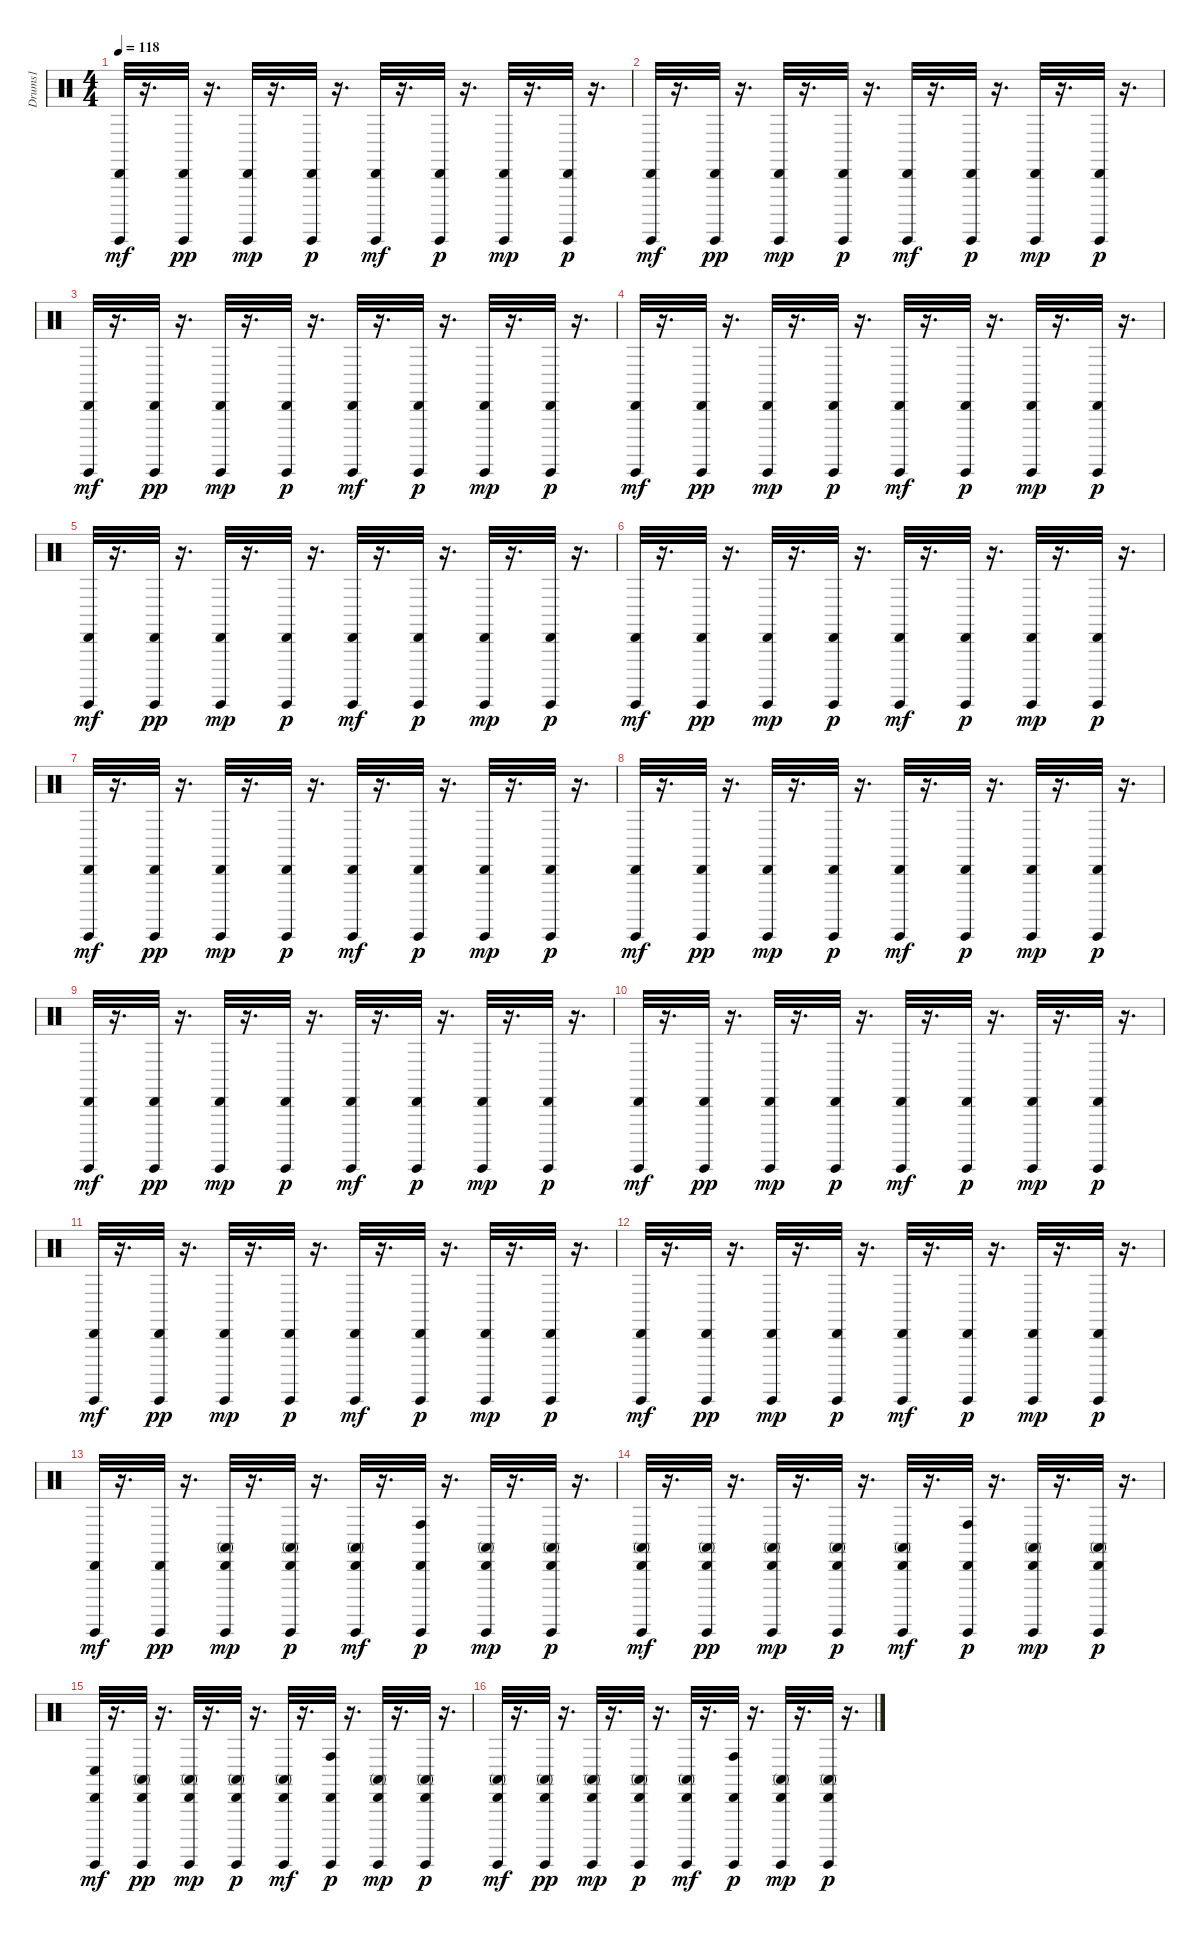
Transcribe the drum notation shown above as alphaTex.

\track ("Drums1" "Drums1") {instrument percussion}
\staff {score}
\articulation defaults
\ts (4 4)
\tempo 118
\clef neutral
\ks c
("Guiro (hit)" "Cabasa (hit)").32{dy mf} r.16{d} ("Guiro (hit)" "Cabasa (hit)").32{dy pp} r.16{d} ("Guiro (hit)" "Cabasa (hit)").32{dy mp} r.16{d} ("Guiro (hit)" "Cabasa (hit)").32{dy p} r.16{d} ("Guiro (hit)" "Cabasa (hit)").32{dy mf} r.16{d} ("Guiro (hit)" "Cabasa (hit)").32{dy p} r.16{d} ("Guiro (hit)" "Cabasa (hit)").32{dy mp} r.16{d} ("Guiro (hit)" "Cabasa (hit)").32{dy p} r.16{d} |
("Guiro (hit)" "Cabasa (hit)").32{dy mf} r.16{d} ("Guiro (hit)" "Cabasa (hit)").32{dy pp} r.16{d} ("Guiro (hit)" "Cabasa (hit)").32{dy mp} r.16{d} ("Guiro (hit)" "Cabasa (hit)").32{dy p} r.16{d} ("Guiro (hit)" "Cabasa (hit)").32{dy mf} r.16{d} ("Guiro (hit)" "Cabasa (hit)").32{dy p} r.16{d} ("Guiro (hit)" "Cabasa (hit)").32{dy mp} r.16{d} ("Guiro (hit)" "Cabasa (hit)").32{dy p} r.16{d} |
("Guiro (hit)" "Cabasa (hit)").32{dy mf} r.16{d} ("Guiro (hit)" "Cabasa (hit)").32{dy pp} r.16{d} ("Guiro (hit)" "Cabasa (hit)").32{dy mp} r.16{d} ("Guiro (hit)" "Cabasa (hit)").32{dy p} r.16{d} ("Guiro (hit)" "Cabasa (hit)").32{dy mf} r.16{d} ("Guiro (hit)" "Cabasa (hit)").32{dy p} r.16{d} ("Guiro (hit)" "Cabasa (hit)").32{dy mp} r.16{d} ("Guiro (hit)" "Cabasa (hit)").32{dy p} r.16{d} |
("Guiro (hit)" "Cabasa (hit)").32{dy mf} r.16{d} ("Guiro (hit)" "Cabasa (hit)").32{dy pp} r.16{d} ("Guiro (hit)" "Cabasa (hit)").32{dy mp} r.16{d} ("Guiro (hit)" "Cabasa (hit)").32{dy p} r.16{d} ("Guiro (hit)" "Cabasa (hit)").32{dy mf} r.16{d} ("Guiro (hit)" "Cabasa (hit)").32{dy p} r.16{d} ("Guiro (hit)" "Cabasa (hit)").32{dy mp} r.16{d} ("Guiro (hit)" "Cabasa (hit)").32{dy p} r.16{d} |
("Guiro (hit)" "Cabasa (hit)").32{dy mf} r.16{d} ("Guiro (hit)" "Cabasa (hit)").32{dy pp} r.16{d} ("Guiro (hit)" "Cabasa (hit)").32{dy mp} r.16{d} ("Guiro (hit)" "Cabasa (hit)").32{dy p} r.16{d} ("Guiro (hit)" "Cabasa (hit)").32{dy mf} r.16{d} ("Guiro (hit)" "Cabasa (hit)").32{dy p} r.16{d} ("Guiro (hit)" "Cabasa (hit)").32{dy mp} r.16{d} ("Guiro (hit)" "Cabasa (hit)").32{dy p} r.16{d} |
("Guiro (hit)" "Cabasa (hit)").32{dy mf} r.16{d} ("Guiro (hit)" "Cabasa (hit)").32{dy pp} r.16{d} ("Guiro (hit)" "Cabasa (hit)").32{dy mp} r.16{d} ("Guiro (hit)" "Cabasa (hit)").32{dy p} r.16{d} ("Guiro (hit)" "Cabasa (hit)").32{dy mf} r.16{d} ("Guiro (hit)" "Cabasa (hit)").32{dy p} r.16{d} ("Guiro (hit)" "Cabasa (hit)").32{dy mp} r.16{d} ("Guiro (hit)" "Cabasa (hit)").32{dy p} r.16{d} |
("Guiro (hit)" "Cabasa (hit)").32{dy mf} r.16{d} ("Guiro (hit)" "Cabasa (hit)").32{dy pp} r.16{d} ("Guiro (hit)" "Cabasa (hit)").32{dy mp} r.16{d} ("Guiro (hit)" "Cabasa (hit)").32{dy p} r.16{d} ("Guiro (hit)" "Cabasa (hit)").32{dy mf} r.16{d} ("Guiro (hit)" "Cabasa (hit)").32{dy p} r.16{d} ("Guiro (hit)" "Cabasa (hit)").32{dy mp} r.16{d} ("Guiro (hit)" "Cabasa (hit)").32{dy p} r.16{d} |
("Guiro (hit)" "Cabasa (hit)").32{dy mf} r.16{d} ("Guiro (hit)" "Cabasa (hit)").32{dy pp} r.16{d} ("Guiro (hit)" "Cabasa (hit)").32{dy mp} r.16{d} ("Guiro (hit)" "Cabasa (hit)").32{dy p} r.16{d} ("Guiro (hit)" "Cabasa (hit)").32{dy mf} r.16{d} ("Guiro (hit)" "Cabasa (hit)").32{dy p} r.16{d} ("Guiro (hit)" "Cabasa (hit)").32{dy mp} r.16{d} ("Guiro (hit)" "Cabasa (hit)").32{dy p} r.16{d} |
("Guiro (hit)" "Cabasa (hit)").32{dy mf} r.16{d} ("Guiro (hit)" "Cabasa (hit)").32{dy pp} r.16{d} ("Guiro (hit)" "Cabasa (hit)").32{dy mp} r.16{d} ("Guiro (hit)" "Cabasa (hit)").32{dy p} r.16{d} ("Guiro (hit)" "Cabasa (hit)").32{dy mf} r.16{d} ("Guiro (hit)" "Cabasa (hit)").32{dy p} r.16{d} ("Guiro (hit)" "Cabasa (hit)").32{dy mp} r.16{d} ("Guiro (hit)" "Cabasa (hit)").32{dy p} r.16{d} |
("Guiro (hit)" "Cabasa (hit)").32{dy mf} r.16{d} ("Guiro (hit)" "Cabasa (hit)").32{dy pp} r.16{d} ("Guiro (hit)" "Cabasa (hit)").32{dy mp} r.16{d} ("Guiro (hit)" "Cabasa (hit)").32{dy p} r.16{d} ("Guiro (hit)" "Cabasa (hit)").32{dy mf} r.16{d} ("Guiro (hit)" "Cabasa (hit)").32{dy p} r.16{d} ("Guiro (hit)" "Cabasa (hit)").32{dy mp} r.16{d} ("Guiro (hit)" "Cabasa (hit)").32{dy p} r.16{d} |
("Guiro (hit)" "Cabasa (hit)").32{dy mf} r.16{d} ("Guiro (hit)" "Cabasa (hit)").32{dy pp} r.16{d} ("Guiro (hit)" "Cabasa (hit)").32{dy mp} r.16{d} ("Guiro (hit)" "Cabasa (hit)").32{dy p} r.16{d} ("Guiro (hit)" "Cabasa (hit)").32{dy mf} r.16{d} ("Guiro (hit)" "Cabasa (hit)").32{dy p} r.16{d} ("Guiro (hit)" "Cabasa (hit)").32{dy mp} r.16{d} ("Guiro (hit)" "Cabasa (hit)").32{dy p} r.16{d} |
("Guiro (hit)" "Cabasa (hit)").32{dy mf} r.16{d} ("Guiro (hit)" "Cabasa (hit)").32{dy pp} r.16{d} ("Guiro (hit)" "Cabasa (hit)").32{dy mp} r.16{d} ("Guiro (hit)" "Cabasa (hit)").32{dy p} r.16{d} ("Guiro (hit)" "Cabasa (hit)").32{dy mf} r.16{d} ("Guiro (hit)" "Cabasa (hit)").32{dy p} r.16{d} ("Guiro (hit)" "Cabasa (hit)").32{dy mp} r.16{d} ("Guiro (hit)" "Cabasa (hit)").32{dy p} r.16{d} |
("Guiro (hit)" "Cabasa (hit)").32{dy mf} r.16{d} ("Guiro (hit)" "Cabasa (hit)").32{dy pp} r.16{d} ("Conga high (mute)" "Guiro (hit)" "Cabasa (hit)").32{dy mp} r.16{d} ("Conga high (mute)" "Guiro (hit)" "Cabasa (hit)").32{dy p} r.16{d} ("Conga high (mute)" "Guiro (hit)" "Cabasa (hit)").32{dy mf} r.16{d} ("Conga high (hit)" "Guiro (hit)" "Cabasa (hit)").32{dy p} r.16{d} ("Conga high (mute)" "Guiro (hit)" "Cabasa (hit)").32{dy mp} r.16{d} ("Conga high (mute)" "Guiro (hit)" "Cabasa (hit)").32{dy p} r.16{d} |
("Conga high (mute)" "Guiro (hit)" "Cabasa (hit)").32{dy mf} r.16{d} ("Conga high (mute)" "Guiro (hit)" "Cabasa (hit)").32{dy pp} r.16{d} ("Conga high (mute)" "Guiro (hit)" "Cabasa (hit)").32{dy mp} r.16{d} ("Conga high (mute)" "Guiro (hit)" "Cabasa (hit)").32{dy p} r.16{d} ("Conga high (mute)" "Guiro (hit)" "Cabasa (hit)").32{dy mf} r.16{d} ("Conga high (hit)" "Guiro (hit)" "Cabasa (hit)").32{dy p} r.16{d} ("Conga high (mute)" "Guiro (hit)" "Cabasa (hit)").32{dy mp} r.16{d} ("Conga high (mute)" "Guiro (hit)" "Cabasa (hit)").32{dy p} r.16{d} |
("Conga low (hit)" "Guiro (hit)" "Cabasa (hit)").32{dy mf} r.16{d} ("Conga high (mute)" "Guiro (hit)" "Cabasa (hit)").32{dy pp} r.16{d} ("Conga high (mute)" "Guiro (hit)" "Cabasa (hit)").32{dy mp} r.16{d} ("Conga high (mute)" "Guiro (hit)" "Cabasa (hit)").32{dy p} r.16{d} ("Conga high (mute)" "Guiro (hit)" "Cabasa (hit)").32{dy mf} r.16{d} ("Conga high (hit)" "Guiro (hit)" "Cabasa (hit)").32{dy p} r.16{d} ("Conga high (mute)" "Guiro (hit)" "Cabasa (hit)").32{dy mp} r.16{d} ("Conga high (mute)" "Guiro (hit)" "Cabasa (hit)").32{dy p} r.16{d} |
("Conga high (mute)" "Guiro (hit)" "Cabasa (hit)").32{dy mf} r.16{d} ("Conga high (mute)" "Guiro (hit)" "Cabasa (hit)").32{dy pp} r.16{d} ("Conga high (mute)" "Guiro (hit)" "Cabasa (hit)").32{dy mp} r.16{d} ("Conga high (mute)" "Guiro (hit)" "Cabasa (hit)").32{dy p} r.16{d} ("Conga high (mute)" "Guiro (hit)" "Cabasa (hit)").32{dy mf} r.16{d} ("Conga high (hit)" "Guiro (hit)" "Cabasa (hit)").32{dy p} r.16{d} ("Conga high (mute)" "Guiro (hit)" "Cabasa (hit)").32{dy mp} r.16{d} ("Conga high (mute)" "Guiro (hit)" "Cabasa (hit)").32{dy p} r.16{d}
